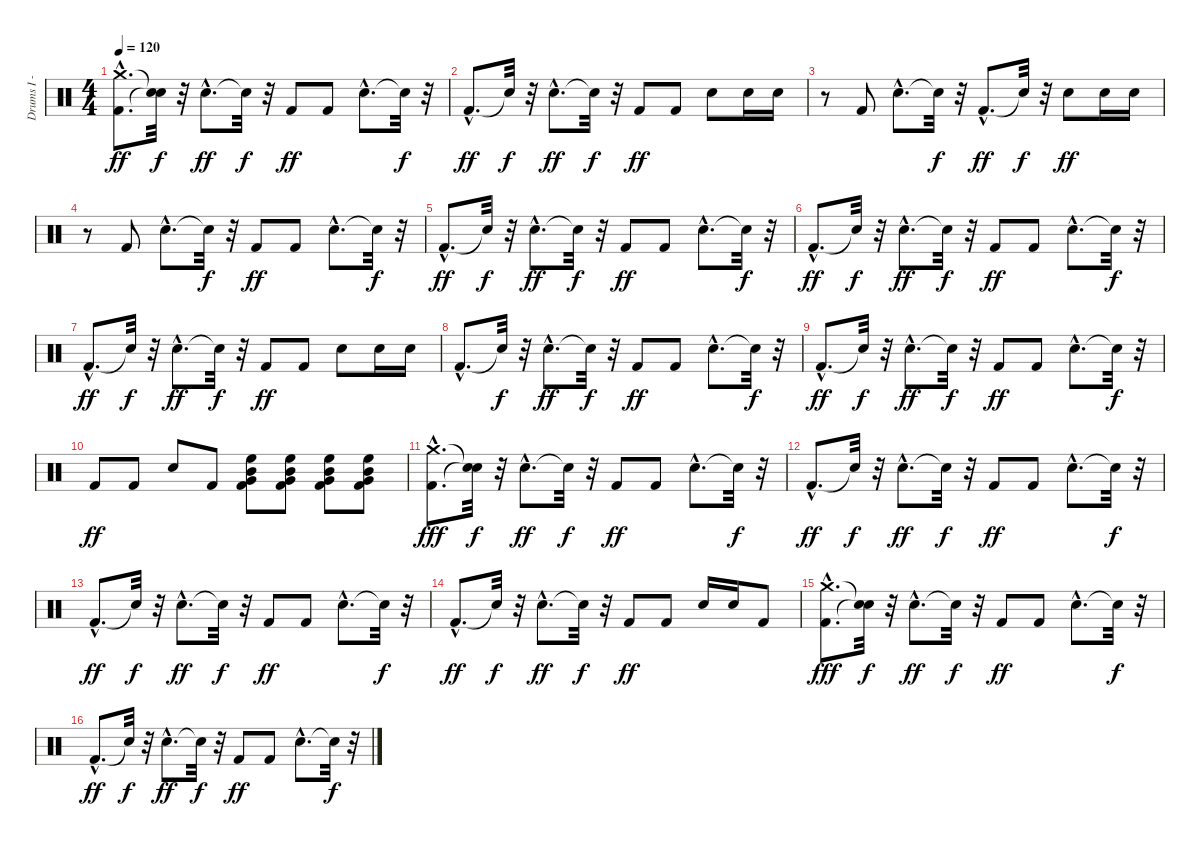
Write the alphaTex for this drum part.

\track ("Drums I - Bobby Schayer" "Drums I - ") {instrument percussion}
\staff {score}
\articulation defaults
\ts (4 4)
\tempo 120
\clef neutral
\ks c
("Kick (hit) 2"{hac} "Crash medium (hit)"{hac}).8{d dy ff} ("Snare (hit)"{t} "Snare (hit)"{t}).32{dy f} r.32 "Snare (hit) 2"{hac}.8{d dy ff} "Snare (hit)"{t}.32{dy f} r.32 "Kick (hit) 2".8{dy ff} "Kick (hit) 2".8 "Snare (hit) 2"{hac}.8{d} "Snare (hit)"{t}.32{dy f} r.32 |
"Kick (hit) 2"{hac}.8{d dy ff} "Snare (hit)"{t}.32{dy f} r.32 "Snare (hit) 2"{hac}.8{d dy ff} "Snare (hit)"{t}.32{dy f} r.32 "Kick (hit) 2".8{dy ff} "Kick (hit) 2".8 "Snare (hit) 2".8 "Snare (hit) 2".16 "Snare (hit) 2".16 |
r.8 "Kick (hit) 2".8 "Snare (hit) 2"{hac}.8{d} "Snare (hit)"{t}.32{dy f} r.32 "Kick (hit) 2"{hac}.8{d dy ff} "Snare (hit)"{t}.32{dy f} r.32 "Snare (hit) 2".8{dy ff} "Snare (hit) 2".16 "Snare (hit) 2".16 |
r.8 "Kick (hit) 2".8 "Snare (hit) 2"{hac}.8{d} "Snare (hit)"{t}.32{dy f} r.32 "Kick (hit) 2".8{dy ff} "Kick (hit) 2".8 "Snare (hit) 2"{hac}.8{d} "Snare (hit)"{t}.32{dy f} r.32 |
"Kick (hit) 2"{hac}.8{d dy ff} "Snare (hit)"{t}.32{dy f} r.32 "Snare (hit) 2"{hac}.8{d dy ff} "Snare (hit)"{t}.32{dy f} r.32 "Kick (hit) 2".8{dy ff} "Kick (hit) 2".8 "Snare (hit) 2"{hac}.8{d} "Snare (hit)"{t}.32{dy f} r.32 |
"Kick (hit) 2"{hac}.8{d dy ff} "Snare (hit)"{t}.32{dy f} r.32 "Snare (hit) 2"{hac}.8{d dy ff} "Snare (hit)"{t}.32{dy f} r.32 "Kick (hit) 2".8{dy ff} "Kick (hit) 2".8 "Snare (hit) 2"{hac}.8{d} "Snare (hit)"{t}.32{dy f} r.32 |
"Kick (hit) 2"{hac}.8{d dy ff} "Snare (hit)"{t}.32{dy f} r.32 "Snare (hit) 2"{hac}.8{d dy ff} "Snare (hit)"{t}.32{dy f} r.32 "Kick (hit) 2".8{dy ff} "Kick (hit) 2".8 "Snare (hit) 2".8 "Snare (hit) 2".16 "Snare (hit) 2".16 |
"Kick (hit) 2"{hac}.8{d} "Snare (hit)"{t}.32{dy f} r.32 "Snare (hit) 2"{hac}.8{d dy ff} "Snare (hit)"{t}.32{dy f} r.32 "Kick (hit) 2".8{dy ff} "Kick (hit) 2".8 "Snare (hit) 2"{hac}.8{d} "Snare (hit)"{t}.32{dy f} r.32 |
"Kick (hit) 2"{hac}.8{d dy ff} "Snare (hit)"{t}.32{dy f} r.32 "Snare (hit) 2"{hac}.8{d dy ff} "Snare (hit)"{t}.32{dy f} r.32 "Kick (hit) 2".8{dy ff} "Kick (hit) 2".8 "Snare (hit) 2"{hac}.8{d} "Snare (hit)"{t}.32{dy f} r.32 |
"Kick (hit) 2".8{dy ff} "Kick (hit) 2".8 "Snare (hit) 2".8 "Kick (hit) 2".8 ("Kick (hit) 2" "Very Low Tom (hit)" "Mid Tom (hit)" "High Floor Tom (hit)").8 ("Kick (hit) 2" "Very Low Tom (hit)" "Mid Tom (hit)" "High Floor Tom (hit)").8 ("Kick (hit) 2" "Very Low Tom (hit)" "Mid Tom (hit)" "High Floor Tom (hit)").8 ("Kick (hit) 2" "Very Low Tom (hit)" "Mid Tom (hit)" "High Floor Tom (hit)").8 |
("Kick (hit) 2"{hac} "Crash medium (hit)"{hac}).8{d dy fff} ("Snare (hit)"{t} "Snare (hit)"{t}).32{dy f} r.32 "Snare (hit) 2"{hac}.8{d dy ff} "Snare (hit)"{t}.32{dy f} r.32 "Kick (hit) 2".8{dy ff} "Kick (hit) 2".8 "Snare (hit) 2"{hac}.8{d} "Snare (hit)"{t}.32{dy f} r.32 |
"Kick (hit) 2"{hac}.8{d dy ff} "Snare (hit)"{t}.32{dy f} r.32 "Snare (hit) 2"{hac}.8{d dy ff} "Snare (hit)"{t}.32{dy f} r.32 "Kick (hit) 2".8{dy ff} "Kick (hit) 2".8 "Snare (hit) 2"{hac}.8{d} "Snare (hit)"{t}.32{dy f} r.32 |
"Kick (hit) 2"{hac}.8{d dy ff} "Snare (hit)"{t}.32{dy f} r.32 "Snare (hit) 2"{hac}.8{d dy ff} "Snare (hit)"{t}.32{dy f} r.32 "Kick (hit) 2".8{dy ff} "Kick (hit) 2".8 "Snare (hit) 2"{hac}.8{d} "Snare (hit)"{t}.32{dy f} r.32 |
"Kick (hit) 2"{hac}.8{d dy ff} "Snare (hit)"{t}.32{dy f} r.32 "Snare (hit) 2"{hac}.8{d dy ff} "Snare (hit)"{t}.32{dy f} r.32 "Kick (hit) 2".8{dy ff} "Kick (hit) 2".8 "Snare (hit) 2".16 "Snare (hit) 2".16 "Kick (hit) 2".8 |
("Kick (hit) 2"{hac} "Crash medium (hit)"{hac}).8{d dy fff} ("Snare (hit)"{t} "Snare (hit)"{t}).32{dy f} r.32 "Snare (hit) 2"{hac}.8{d dy ff} "Snare (hit)"{t}.32{dy f} r.32 "Kick (hit) 2".8{dy ff} "Kick (hit) 2".8 "Snare (hit) 2"{hac}.8{d} "Snare (hit)"{t}.32{dy f} r.32 |
"Kick (hit) 2"{hac}.8{d dy ff} "Snare (hit)"{t}.32{dy f} r.32 "Snare (hit) 2"{hac}.8{d dy ff} "Snare (hit)"{t}.32{dy f} r.32 "Kick (hit) 2".8{dy ff} "Kick (hit) 2".8 "Snare (hit) 2"{hac}.8{d} "Snare (hit)"{t}.32{dy f} r.32
